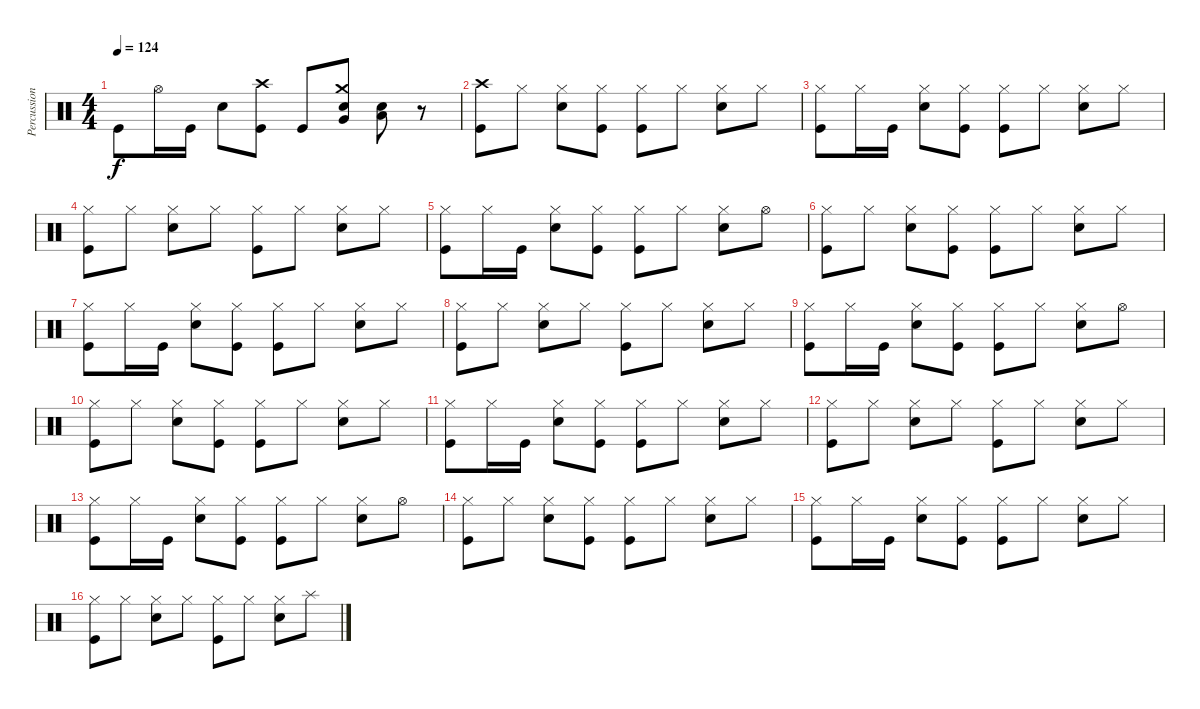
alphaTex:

\track ("Percussion" "Percussion") {instrument percussion}
\staff {score}
\articulation defaults
\ts (4 4)
\tempo 124
\clef neutral
\ks c "Kick (hit)".8{dy f} "Hi-Hat (open)".16 "Kick (hit)".16 "Snare (hit) 2".8
("Crash high (hit)" "Kick (hit)").8 "Kick (hit)".8 ("Crash medium (hit)" "Very Low Tom (hit)" "Snare (hit) 2").8 ("Low Floor Tom (hit)" "Snare (hit) 2").8 r.8 |
("Crash high (hit)" "Kick (hit)").8 "Hi-Hat (closed)".8 ("Hi-Hat (closed)" "Snare (hit) 2").8 ("Hi-Hat (closed)" "Kick (hit)").8 ("Hi-Hat (closed)" "Kick (hit)").8 "Hi-Hat (closed)".8 ("Hi-Hat (closed)" "Snare (hit) 2").8 "Hi-Hat (closed)".8 |
("Hi-Hat (closed)" "Kick (hit)").8 "Hi-Hat (closed)".16 "Kick (hit)".16 ("Hi-Hat (closed)" "Snare (hit) 2").8 ("Hi-Hat (closed)" "Kick (hit)").8 ("Hi-Hat (closed)" "Kick (hit)").8 "Hi-Hat (closed)".8 ("Hi-Hat (closed)" "Snare (hit) 2").8 "Hi-Hat (closed)".8 |
("Hi-Hat (closed)" "Kick (hit)").8 "Hi-Hat (closed)".8 ("Hi-Hat (closed)" "Snare (hit) 2").8 "Hi-Hat (closed)".8 ("Hi-Hat (closed)" "Kick (hit)").8 "Hi-Hat (closed)".8 ("Hi-Hat (closed)" "Snare (hit) 2").8 "Hi-Hat (closed)".8 |
("Hi-Hat (closed)" "Kick (hit)").8 "Hi-Hat (closed)".16 "Kick (hit)".16 ("Hi-Hat (closed)" "Snare (hit) 2").8 ("Hi-Hat (closed)" "Kick (hit)").8 ("Hi-Hat (closed)" "Kick (hit)").8 "Hi-Hat (closed)".8 ("Hi-Hat (closed)" "Snare (hit) 2").8 "Hi-Hat (open)".8 |
("Hi-Hat (closed)" "Kick (hit)").8 "Hi-Hat (closed)".8 ("Hi-Hat (closed)" "Snare (hit) 2").8 ("Hi-Hat (closed)" "Kick (hit)").8 ("Hi-Hat (closed)" "Kick (hit)").8 "Hi-Hat (closed)".8 ("Hi-Hat (closed)" "Snare (hit) 2").8 "Hi-Hat (closed)".8 |
("Hi-Hat (closed)" "Kick (hit)").8 "Hi-Hat (closed)".16 "Kick (hit)".16 ("Hi-Hat (closed)" "Snare (hit) 2").8 ("Hi-Hat (closed)" "Kick (hit)").8 ("Hi-Hat (closed)" "Kick (hit)").8 "Hi-Hat (closed)".8 ("Hi-Hat (closed)" "Snare (hit) 2").8 "Hi-Hat (closed)".8 |
("Hi-Hat (closed)" "Kick (hit)").8 "Hi-Hat (closed)".8 ("Hi-Hat (closed)" "Snare (hit) 2").8 "Hi-Hat (closed)".8 ("Hi-Hat (closed)" "Kick (hit)").8 "Hi-Hat (closed)".8 ("Hi-Hat (closed)" "Snare (hit) 2").8 "Hi-Hat (closed)".8 |
("Hi-Hat (closed)" "Kick (hit)").8 "Hi-Hat (closed)".16 "Kick (hit)".16 ("Hi-Hat (closed)" "Snare (hit) 2").8 ("Hi-Hat (closed)" "Kick (hit)").8 ("Hi-Hat (closed)" "Kick (hit)").8 "Hi-Hat (closed)".8 ("Hi-Hat (closed)" "Snare (hit) 2").8 "Hi-Hat (open)".8 |
("Hi-Hat (closed)" "Kick (hit)").8 "Hi-Hat (closed)".8 ("Hi-Hat (closed)" "Snare (hit) 2").8 ("Hi-Hat (closed)" "Kick (hit)").8 ("Hi-Hat (closed)" "Kick (hit)").8 "Hi-Hat (closed)".8 ("Hi-Hat (closed)" "Snare (hit) 2").8 "Hi-Hat (closed)".8 |
("Hi-Hat (closed)" "Kick (hit)").8 "Hi-Hat (closed)".16 "Kick (hit)".16 ("Hi-Hat (closed)" "Snare (hit) 2").8 ("Hi-Hat (closed)" "Kick (hit)").8 ("Hi-Hat (closed)" "Kick (hit)").8 "Hi-Hat (closed)".8 ("Hi-Hat (closed)" "Snare (hit) 2").8 "Hi-Hat (closed)".8 |
("Hi-Hat (closed)" "Kick (hit)").8 "Hi-Hat (closed)".8 ("Hi-Hat (closed)" "Snare (hit) 2").8 "Hi-Hat (closed)".8 ("Hi-Hat (closed)" "Kick (hit)").8 "Hi-Hat (closed)".8 ("Hi-Hat (closed)" "Snare (hit) 2").8 "Hi-Hat (closed)".8 |
("Hi-Hat (closed)" "Kick (hit)").8 "Hi-Hat (closed)".16 "Kick (hit)".16 ("Hi-Hat (closed)" "Snare (hit) 2").8 ("Hi-Hat (closed)" "Kick (hit)").8 ("Hi-Hat (closed)" "Kick (hit)").8 "Hi-Hat (closed)".8 ("Hi-Hat (closed)" "Snare (hit) 2").8 "Hi-Hat (open)".8 |
("Hi-Hat (closed)" "Kick (hit)").8 "Hi-Hat (closed)".8 ("Hi-Hat (closed)" "Snare (hit) 2").8 ("Hi-Hat (closed)" "Kick (hit)").8 ("Hi-Hat (closed)" "Kick (hit)").8 "Hi-Hat (closed)".8 ("Hi-Hat (closed)" "Snare (hit) 2").8 "Hi-Hat (closed)".8 |
("Hi-Hat (closed)" "Kick (hit)").8 "Hi-Hat (closed)".16 "Kick (hit)".16 ("Hi-Hat (closed)" "Snare (hit) 2").8 ("Hi-Hat (closed)" "Kick (hit)").8 ("Hi-Hat (closed)" "Kick (hit)").8 "Hi-Hat (closed)".8 ("Hi-Hat (closed)" "Snare (hit) 2").8 "Hi-Hat (closed)".8 |
("Hi-Hat (closed)" "Kick (hit)").8 "Hi-Hat (closed)".8 ("Hi-Hat (closed)" "Snare (hit) 2").8 "Hi-Hat (closed)".8 ("Hi-Hat (closed)" "Kick (hit)").8 "Hi-Hat (closed)".8 ("Hi-Hat (closed)" "Snare (hit) 2").8 "Splash (hit)".8
